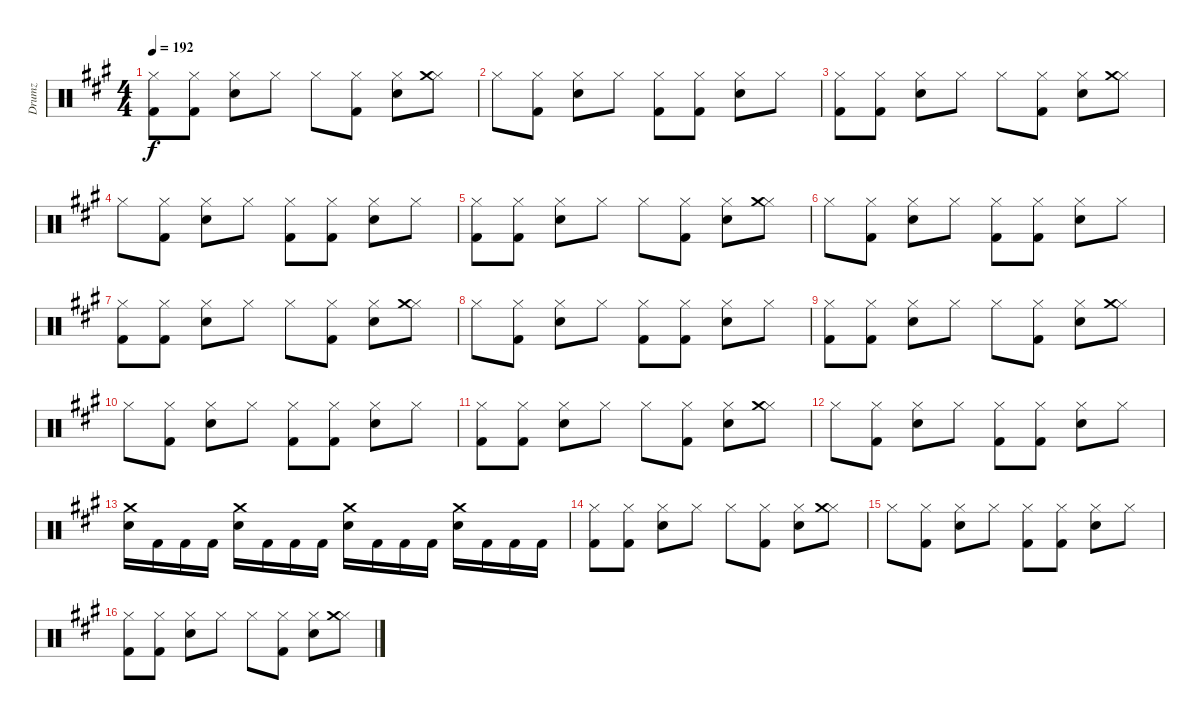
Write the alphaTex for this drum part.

\track ("Drumz" "Drumz") {instrument percussion}
\staff {score}
\articulation defaults
\ts (4 4)
\tempo 192
\clef neutral
\ks a
("Hi-Hat (closed)" "Kick (hit) 2").8{dy f} ("Hi-Hat (closed)" "Kick (hit) 2").8 ("Hi-Hat (closed)" "Snare (hit) 2").8 "Hi-Hat (closed)".8 "Hi-Hat (closed)".8 ("Hi-Hat (closed)" "Kick (hit) 2").8 ("Hi-Hat (closed)" "Snare (hit) 2").8 ("Hi-Hat (closed)" "Crash medium (hit)").8 |
"Hi-Hat (closed)".8 ("Hi-Hat (closed)" "Kick (hit) 2").8 ("Hi-Hat (closed)" "Snare (hit) 2").8 "Hi-Hat (closed)".8 ("Hi-Hat (closed)" "Kick (hit) 2").8 ("Hi-Hat (closed)" "Kick (hit) 2").8 ("Hi-Hat (closed)" "Snare (hit) 2").8 "Hi-Hat (closed)".8 |
("Hi-Hat (closed)" "Kick (hit) 2").8 ("Hi-Hat (closed)" "Kick (hit) 2").8 ("Hi-Hat (closed)" "Snare (hit) 2").8 "Hi-Hat (closed)".8 "Hi-Hat (closed)".8 ("Hi-Hat (closed)" "Kick (hit) 2").8 ("Hi-Hat (closed)" "Snare (hit) 2").8 ("Hi-Hat (closed)" "Crash medium (hit)").8 |
"Hi-Hat (closed)".8 ("Hi-Hat (closed)" "Kick (hit) 2").8 ("Hi-Hat (closed)" "Snare (hit) 2").8 "Hi-Hat (closed)".8 ("Hi-Hat (closed)" "Kick (hit) 2").8 ("Hi-Hat (closed)" "Kick (hit) 2").8 ("Hi-Hat (closed)" "Snare (hit) 2").8 "Hi-Hat (closed)".8 |
("Hi-Hat (closed)" "Kick (hit) 2").8 ("Hi-Hat (closed)" "Kick (hit) 2").8 ("Hi-Hat (closed)" "Snare (hit) 2").8 "Hi-Hat (closed)".8 "Hi-Hat (closed)".8 ("Hi-Hat (closed)" "Kick (hit) 2").8 ("Hi-Hat (closed)" "Snare (hit) 2").8 ("Hi-Hat (closed)" "Crash medium (hit)").8 |
"Hi-Hat (closed)".8 ("Hi-Hat (closed)" "Kick (hit) 2").8 ("Hi-Hat (closed)" "Snare (hit) 2").8 "Hi-Hat (closed)".8 ("Hi-Hat (closed)" "Kick (hit) 2").8 ("Hi-Hat (closed)" "Kick (hit) 2").8 ("Hi-Hat (closed)" "Snare (hit) 2").8 "Hi-Hat (closed)".8 |
("Hi-Hat (closed)" "Kick (hit) 2").8 ("Hi-Hat (closed)" "Kick (hit) 2").8 ("Hi-Hat (closed)" "Snare (hit) 2").8 "Hi-Hat (closed)".8 "Hi-Hat (closed)".8 ("Hi-Hat (closed)" "Kick (hit) 2").8 ("Hi-Hat (closed)" "Snare (hit) 2").8 ("Hi-Hat (closed)" "Crash medium (hit)").8 |
"Hi-Hat (closed)".8 ("Hi-Hat (closed)" "Kick (hit) 2").8 ("Hi-Hat (closed)" "Snare (hit) 2").8 "Hi-Hat (closed)".8 ("Hi-Hat (closed)" "Kick (hit) 2").8 ("Hi-Hat (closed)" "Kick (hit) 2").8 ("Hi-Hat (closed)" "Snare (hit) 2").8 "Hi-Hat (closed)".8 |
("Hi-Hat (closed)" "Kick (hit) 2").8 ("Hi-Hat (closed)" "Kick (hit) 2").8 ("Hi-Hat (closed)" "Snare (hit) 2").8 "Hi-Hat (closed)".8 "Hi-Hat (closed)".8 ("Hi-Hat (closed)" "Kick (hit) 2").8 ("Hi-Hat (closed)" "Snare (hit) 2").8 ("Hi-Hat (closed)" "Crash medium (hit)").8 |
"Hi-Hat (closed)".8 ("Hi-Hat (closed)" "Kick (hit) 2").8 ("Hi-Hat (closed)" "Snare (hit) 2").8 "Hi-Hat (closed)".8 ("Hi-Hat (closed)" "Kick (hit) 2").8 ("Hi-Hat (closed)" "Kick (hit) 2").8 ("Hi-Hat (closed)" "Snare (hit) 2").8 "Hi-Hat (closed)".8 |
("Hi-Hat (closed)" "Kick (hit) 2").8 ("Hi-Hat (closed)" "Kick (hit) 2").8 ("Hi-Hat (closed)" "Snare (hit) 2").8 "Hi-Hat (closed)".8 "Hi-Hat (closed)".8 ("Hi-Hat (closed)" "Kick (hit) 2").8 ("Hi-Hat (closed)" "Snare (hit) 2").8 ("Hi-Hat (closed)" "Crash medium (hit)").8 |
"Hi-Hat (closed)".8 ("Hi-Hat (closed)" "Kick (hit) 2").8 ("Hi-Hat (closed)" "Snare (hit) 2").8 "Hi-Hat (closed)".8 ("Hi-Hat (closed)" "Kick (hit) 2").8 ("Hi-Hat (closed)" "Kick (hit) 2").8 ("Hi-Hat (closed)" "Snare (hit) 2").8 "Hi-Hat (closed)".8 |
("Crash medium (hit)" "Snare (hit) 2").16 "Kick (hit) 2".16 "Kick (hit) 2".16 "Kick (hit) 2".16 ("Crash medium (hit)" "Snare (hit) 2").16 "Kick (hit) 2".16 "Kick (hit) 2".16 "Kick (hit) 2".16 ("Crash medium (hit)" "Snare (hit) 2").16 "Kick (hit) 2".16 "Kick (hit) 2".16 "Kick (hit) 2".16 ("Crash medium (hit)" "Snare (hit) 2").16 "Kick (hit) 2".16 "Kick (hit) 2".16 "Kick (hit) 2".16 |
("Hi-Hat (closed)" "Kick (hit) 2").8 ("Hi-Hat (closed)" "Kick (hit) 2").8 ("Hi-Hat (closed)" "Snare (hit) 2").8 "Hi-Hat (closed)".8 "Hi-Hat (closed)".8 ("Hi-Hat (closed)" "Kick (hit) 2").8 ("Hi-Hat (closed)" "Snare (hit) 2").8 ("Hi-Hat (closed)" "Crash medium (hit)").8 |
"Hi-Hat (closed)".8 ("Hi-Hat (closed)" "Kick (hit) 2").8 ("Hi-Hat (closed)" "Snare (hit) 2").8 "Hi-Hat (closed)".8 ("Hi-Hat (closed)" "Kick (hit) 2").8 ("Hi-Hat (closed)" "Kick (hit) 2").8 ("Hi-Hat (closed)" "Snare (hit) 2").8 "Hi-Hat (closed)".8 |
("Hi-Hat (closed)" "Kick (hit) 2").8 ("Hi-Hat (closed)" "Kick (hit) 2").8 ("Hi-Hat (closed)" "Snare (hit) 2").8 "Hi-Hat (closed)".8 "Hi-Hat (closed)".8 ("Hi-Hat (closed)" "Kick (hit) 2").8 ("Hi-Hat (closed)" "Snare (hit) 2").8 ("Hi-Hat (closed)" "Crash medium (hit)").8
